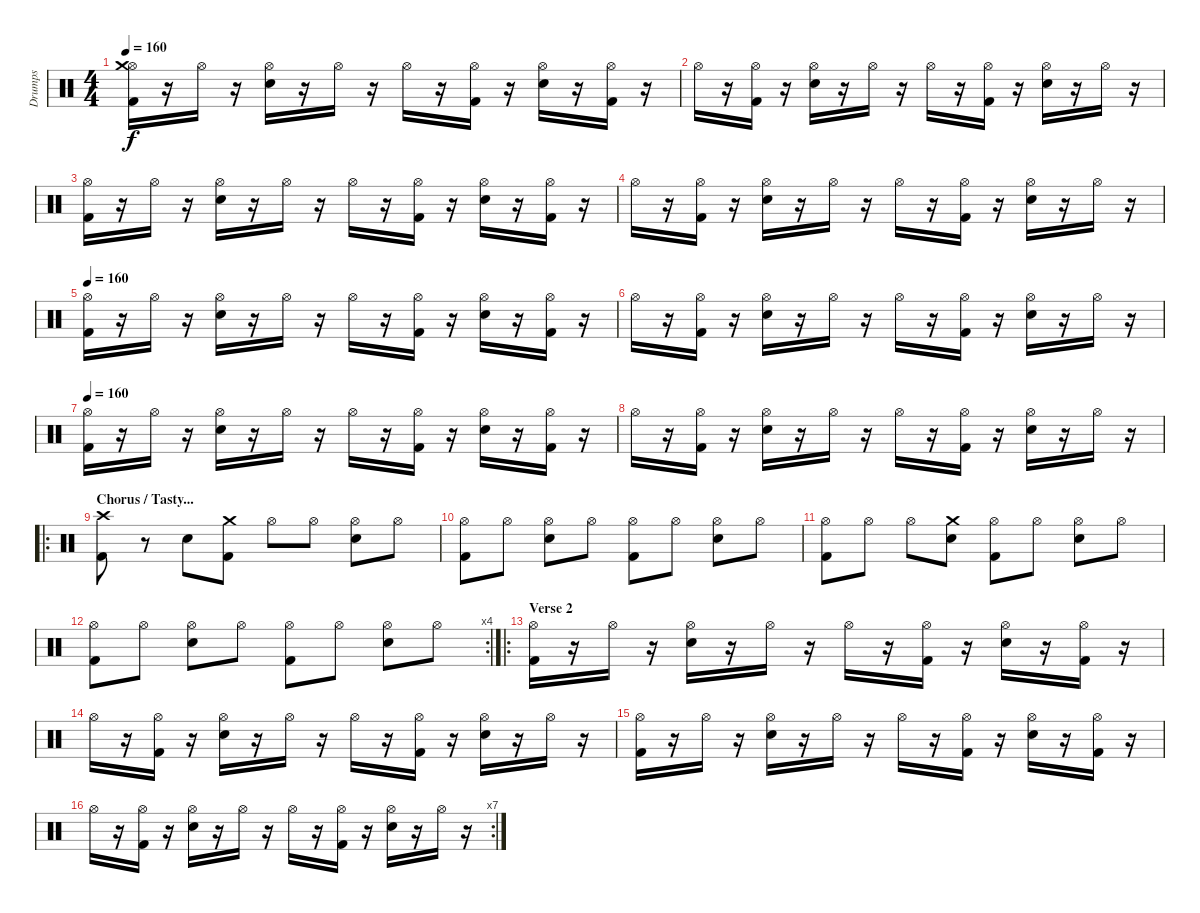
\track ("Drumps" "Drumps") {instrument percussion}
\staff {score}
\articulation defaults
\ts (4 4)
\tempo 160
\clef neutral
\ks c
("Hi-Hat (open)" "Crash medium (hit)" "Kick (hit) 2").16{dy f} r.16 "Hi-Hat (open)".16 r.16 ("Hi-Hat (open)" "Electric Snare (hit)").16 r.16 "Hi-Hat (open)".16 r.16 "Hi-Hat (open)".16 r.16 ("Hi-Hat (open)" "Kick (hit) 2").16 r.16 ("Hi-Hat (open)" "Electric Snare (hit)").16 r.16 ("Hi-Hat (open)" "Kick (hit) 2").16 r.16 |
"Hi-Hat (open)".16 r.16 ("Hi-Hat (open)" "Kick (hit) 2").16 r.16 ("Hi-Hat (open)" "Electric Snare (hit)").16 r.16 "Hi-Hat (open)".16 r.16 "Hi-Hat (open)".16 r.16 ("Hi-Hat (open)" "Kick (hit) 2").16 r.16 ("Hi-Hat (open)" "Electric Snare (hit)").16 r.16 "Hi-Hat (open)".16 r.16 |
("Hi-Hat (open)" "Kick (hit) 2").16 r.16 "Hi-Hat (open)".16 r.16 ("Hi-Hat (open)" "Electric Snare (hit)").16 r.16 "Hi-Hat (open)".16 r.16 "Hi-Hat (open)".16 r.16 ("Hi-Hat (open)" "Kick (hit) 2").16 r.16 ("Hi-Hat (open)" "Electric Snare (hit)").16 r.16 ("Hi-Hat (open)" "Kick (hit) 2").16 r.16 |
"Hi-Hat (open)".16 r.16 ("Hi-Hat (open)" "Kick (hit) 2").16 r.16 ("Hi-Hat (open)" "Electric Snare (hit)").16 r.16 "Hi-Hat (open)".16 r.16 "Hi-Hat (open)".16 r.16 ("Hi-Hat (open)" "Kick (hit) 2").16 r.16 ("Hi-Hat (open)" "Electric Snare (hit)").16 r.16 "Hi-Hat (open)".16 r.16 |
\tempo 160
("Hi-Hat (open)" "Kick (hit) 2").16 r.16 "Hi-Hat (open)".16 r.16 ("Hi-Hat (open)" "Electric Snare (hit)").16 r.16 "Hi-Hat (open)".16 r.16 "Hi-Hat (open)".16 r.16 ("Hi-Hat (open)" "Kick (hit) 2").16 r.16 ("Hi-Hat (open)" "Electric Snare (hit)").16 r.16 ("Hi-Hat (open)" "Kick (hit) 2").16 r.16 |
"Hi-Hat (open)".16 r.16 ("Hi-Hat (open)" "Kick (hit) 2").16 r.16 ("Hi-Hat (open)" "Electric Snare (hit)").16 r.16 "Hi-Hat (open)".16 r.16 "Hi-Hat (open)".16 r.16 ("Hi-Hat (open)" "Kick (hit) 2").16 r.16 ("Hi-Hat (open)" "Electric Snare (hit)").16 r.16 "Hi-Hat (open)".16 r.16 |
\tempo 160
("Hi-Hat (open)" "Kick (hit) 2").16 r.16 "Hi-Hat (open)".16 r.16 ("Hi-Hat (open)" "Electric Snare (hit)").16 r.16 "Hi-Hat (open)".16 r.16 "Hi-Hat (open)".16 r.16 ("Hi-Hat (open)" "Kick (hit) 2").16 r.16 ("Hi-Hat (open)" "Electric Snare (hit)").16 r.16 ("Hi-Hat (open)" "Kick (hit) 2").16 r.16 |
"Hi-Hat (open)".16 r.16 ("Hi-Hat (open)" "Kick (hit) 2").16 r.16 ("Hi-Hat (open)" "Electric Snare (hit)").16 r.16 "Hi-Hat (open)".16 r.16 "Hi-Hat (open)".16 r.16 ("Hi-Hat (open)" "Kick (hit) 2").16 r.16 ("Hi-Hat (open)" "Electric Snare (hit)").16 r.16 "Hi-Hat (open)".16 r.16 |
\ro
\section ("" "Chorus / Tasty...")
("Crash high (hit)" "Kick (hit) 2").8 r.8 "Electric Snare (hit)".8 ("Crash medium (hit)" "Kick (hit) 2").8 "Hi-Hat (open)".8 "Hi-Hat (open)".8 ("Hi-Hat (open)" "Electric Snare (hit)").8 "Hi-Hat (open)".8 |
("Hi-Hat (open)" "Kick (hit) 2").8 "Hi-Hat (open)".8 ("Hi-Hat (open)" "Electric Snare (hit)").8 "Hi-Hat (open)".8 ("Hi-Hat (open)" "Kick (hit) 2").8 "Hi-Hat (open)".8 ("Hi-Hat (open)" "Electric Snare (hit)").8 "Hi-Hat (open)".8 |
("Hi-Hat (open)" "Kick (hit) 2").8 "Hi-Hat (open)".8 "Hi-Hat (open)".8 ("Crash medium (hit)" "Electric Snare (hit)").8 ("Hi-Hat (open)" "Kick (hit) 2").8 "Hi-Hat (open)".8 ("Hi-Hat (open)" "Electric Snare (hit)").8 "Hi-Hat (open)".8 |
\rc 4
("Hi-Hat (open)" "Kick (hit) 2").8 "Hi-Hat (open)".8 ("Hi-Hat (open)" "Electric Snare (hit)").8 "Hi-Hat (open)".8 ("Hi-Hat (open)" "Kick (hit) 2").8 "Hi-Hat (open)".8 ("Hi-Hat (open)" "Electric Snare (hit)").8 "Hi-Hat (open)".8 |
\ro
\section ("" "Verse 2")
("Hi-Hat (open)" "Kick (hit) 2").16 r.16 "Hi-Hat (open)".16 r.16 ("Hi-Hat (open)" "Electric Snare (hit)").16 r.16 "Hi-Hat (open)".16 r.16 "Hi-Hat (open)".16 r.16 ("Hi-Hat (open)" "Kick (hit) 2").16 r.16 ("Hi-Hat (open)" "Electric Snare (hit)").16 r.16 ("Hi-Hat (open)" "Kick (hit) 2").16 r.16 |
"Hi-Hat (open)".16 r.16 ("Hi-Hat (open)" "Kick (hit) 2").16 r.16 ("Hi-Hat (open)" "Electric Snare (hit)").16 r.16 "Hi-Hat (open)".16 r.16 "Hi-Hat (open)".16 r.16 ("Hi-Hat (open)" "Kick (hit) 2").16 r.16 ("Hi-Hat (open)" "Electric Snare (hit)").16 r.16 "Hi-Hat (open)".16 r.16 |
("Hi-Hat (open)" "Kick (hit) 2").16 r.16 "Hi-Hat (open)".16 r.16 ("Hi-Hat (open)" "Electric Snare (hit)").16 r.16 "Hi-Hat (open)".16 r.16 "Hi-Hat (open)".16 r.16 ("Hi-Hat (open)" "Kick (hit) 2").16 r.16 ("Hi-Hat (open)" "Electric Snare (hit)").16 r.16 ("Hi-Hat (open)" "Kick (hit) 2").16 r.16 |
\rc 7 "Hi-Hat (open)".16
r.16 ("Hi-Hat (open)" "Kick (hit) 2").16 r.16 ("Hi-Hat (open)" "Electric Snare (hit)").16 r.16 "Hi-Hat (open)".16 r.16 "Hi-Hat (open)".16 r.16 ("Hi-Hat (open)" "Kick (hit) 2").16 r.16 ("Hi-Hat (open)" "Electric Snare (hit)").16 r.16 "Hi-Hat (open)".16 r.16
